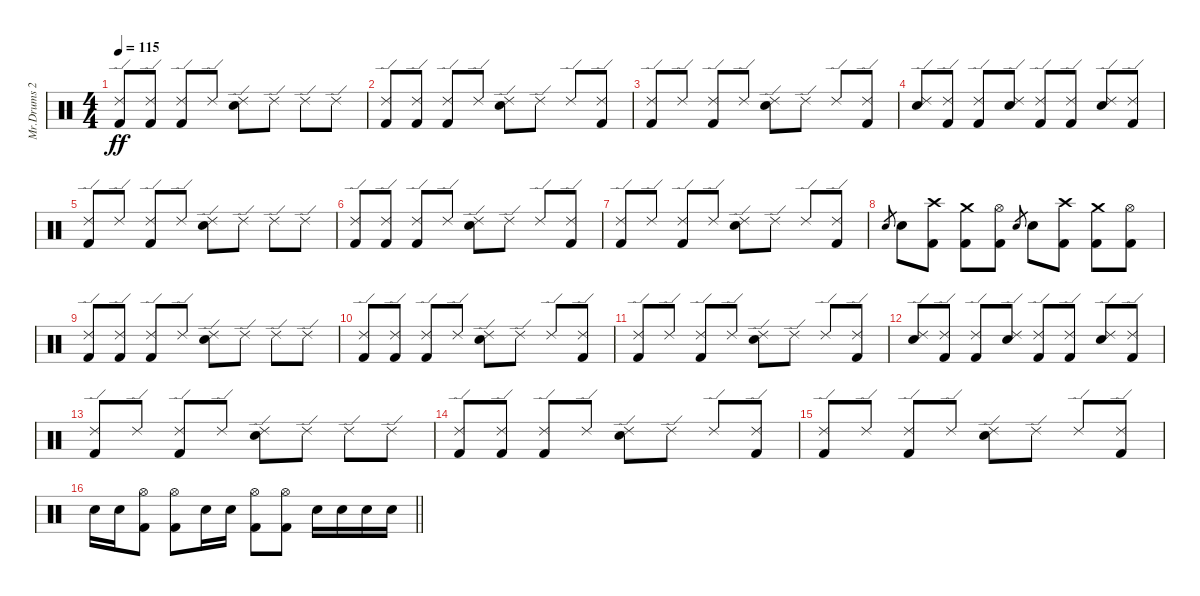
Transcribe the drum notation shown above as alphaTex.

\track ("Mr.Drums 2" "Mr.Drums 2") {instrument percussion}
\staff {score}
\articulation defaults
\ts (4 4)
\tempo 115
\clef neutral
\ks c
("Ride (edge) 2" "Kick (hit) 2").8{dy ff} ("Ride (edge) 2" "Kick (hit) 2").8 ("Ride (edge) 2" "Kick (hit) 2").8 "Ride (edge) 2".8 ("Ride (edge) 2" "Electric Snare (hit)").8 "Ride (edge) 2".8 "Ride (edge) 2".8 "Ride (edge) 2".8 |
("Ride (edge) 2" "Kick (hit) 2").8 ("Ride (edge) 2" "Kick (hit) 2").8 ("Ride (edge) 2" "Kick (hit) 2").8 "Ride (edge) 2".8 ("Ride (edge) 2" "Electric Snare (hit)").8 "Ride (edge) 2".8 "Ride (edge) 2".8 ("Ride (edge) 2" "Kick (hit) 2").8 |
("Ride (edge) 2" "Kick (hit) 2").8 "Ride (edge) 2".8 ("Ride (edge) 2" "Kick (hit) 2").8 "Ride (edge) 2".8 ("Ride (edge) 2" "Electric Snare (hit)").8 "Ride (edge) 2".8 "Ride (edge) 2".8 ("Ride (edge) 2" "Kick (hit) 2").8 |
("Ride (edge) 2" "Electric Snare (hit)").8 ("Ride (edge) 2" "Kick (hit) 2").8 ("Ride (edge) 2" "Kick (hit) 2").8 ("Ride (edge) 2" "Electric Snare (hit)").8 ("Ride (edge) 2" "Kick (hit) 2").8 ("Ride (edge) 2" "Kick (hit) 2").8 ("Ride (edge) 2" "Electric Snare (hit)").8 ("Ride (edge) 2" "Kick (hit) 2").8 |
("Ride (edge) 2" "Kick (hit) 2").8 "Ride (edge) 2".8 ("Ride (edge) 2" "Kick (hit) 2").8 "Ride (edge) 2".8 ("Ride (edge) 2" "Electric Snare (hit)").8 "Ride (edge) 2".8 "Ride (edge) 2".8 "Ride (edge) 2".8 |
("Ride (edge) 2" "Kick (hit) 2").8 ("Ride (edge) 2" "Kick (hit) 2").8 ("Ride (edge) 2" "Kick (hit) 2").8 "Ride (edge) 2".8 ("Ride (edge) 2" "Electric Snare (hit)").8 "Ride (edge) 2".8 "Ride (edge) 2".8 ("Ride (edge) 2" "Kick (hit) 2").8 |
("Ride (edge) 2" "Kick (hit) 2").8 "Ride (edge) 2".8 ("Ride (edge) 2" "Kick (hit) 2").8 "Ride (edge) 2".8 ("Ride (edge) 2" "Electric Snare (hit)").8 "Ride (edge) 2".8 "Ride (edge) 2".8 ("Ride (edge) 2" "Kick (hit) 2").8 |
"Electric Snare (hit)".8{gr} "Electric Snare (hit)".8 ("Crash high (hit)" "Kick (hit) 2").8 ("Crash medium (hit)" "Kick (hit) 2").8 ("Hi-Hat (open)" "Kick (hit) 2").8 "Electric Snare (hit)".8{gr} "Electric Snare (hit)".8 ("Crash high (hit)" "Kick (hit) 2").8 ("Crash medium (hit)" "Kick (hit) 2").8 ("Hi-Hat (open)" "Kick (hit) 2").8 |
("Ride (edge) 2" "Kick (hit) 2").8 ("Ride (edge) 2" "Kick (hit) 2").8 ("Ride (edge) 2" "Kick (hit) 2").8 "Ride (edge) 2".8 ("Ride (edge) 2" "Electric Snare (hit)").8 "Ride (edge) 2".8 "Ride (edge) 2".8 "Ride (edge) 2".8 |
("Ride (edge) 2" "Kick (hit) 2").8 ("Ride (edge) 2" "Kick (hit) 2").8 ("Ride (edge) 2" "Kick (hit) 2").8 "Ride (edge) 2".8 ("Ride (edge) 2" "Electric Snare (hit)").8 "Ride (edge) 2".8 "Ride (edge) 2".8 ("Ride (edge) 2" "Kick (hit) 2").8 |
("Ride (edge) 2" "Kick (hit) 2").8 "Ride (edge) 2".8 ("Ride (edge) 2" "Kick (hit) 2").8 "Ride (edge) 2".8 ("Ride (edge) 2" "Electric Snare (hit)").8 "Ride (edge) 2".8 "Ride (edge) 2".8 ("Ride (edge) 2" "Kick (hit) 2").8 |
("Ride (edge) 2" "Electric Snare (hit)").8 ("Ride (edge) 2" "Kick (hit) 2").8 ("Ride (edge) 2" "Kick (hit) 2").8 ("Ride (edge) 2" "Electric Snare (hit)").8 ("Ride (edge) 2" "Kick (hit) 2").8 ("Ride (edge) 2" "Kick (hit) 2").8 ("Ride (edge) 2" "Electric Snare (hit)").8 ("Ride (edge) 2" "Kick (hit) 2").8 |
("Ride (edge) 2" "Kick (hit) 2").8 "Ride (edge) 2".8 ("Ride (edge) 2" "Kick (hit) 2").8 "Ride (edge) 2".8 ("Ride (edge) 2" "Electric Snare (hit)").8 "Ride (edge) 2".8 "Ride (edge) 2".8 "Ride (edge) 2".8 |
("Ride (edge) 2" "Kick (hit) 2").8 ("Ride (edge) 2" "Kick (hit) 2").8 ("Ride (edge) 2" "Kick (hit) 2").8 "Ride (edge) 2".8 ("Ride (edge) 2" "Electric Snare (hit)").8 "Ride (edge) 2".8 "Ride (edge) 2".8 ("Ride (edge) 2" "Kick (hit) 2").8 |
("Ride (edge) 2" "Kick (hit) 2").8 "Ride (edge) 2".8 ("Ride (edge) 2" "Kick (hit) 2").8 "Ride (edge) 2".8 ("Ride (edge) 2" "Electric Snare (hit)").8 "Ride (edge) 2".8 "Ride (edge) 2".8 ("Ride (edge) 2" "Kick (hit) 2").8 |
\barLineRight lightlight "Electric Snare (hit)".16 "Electric Snare (hit)".16
("Hi-Hat (open)" "Kick (hit) 2").8 ("Hi-Hat (open)" "Kick (hit) 2").8 "Electric Snare (hit)".16 "Electric Snare (hit)".16 ("Hi-Hat (open)" "Kick (hit) 2").8 ("Hi-Hat (open)" "Kick (hit) 2").8 "Electric Snare (hit)".16 "Electric Snare (hit)".16 "Electric Snare (hit)".16 "Electric Snare (hit)".16
